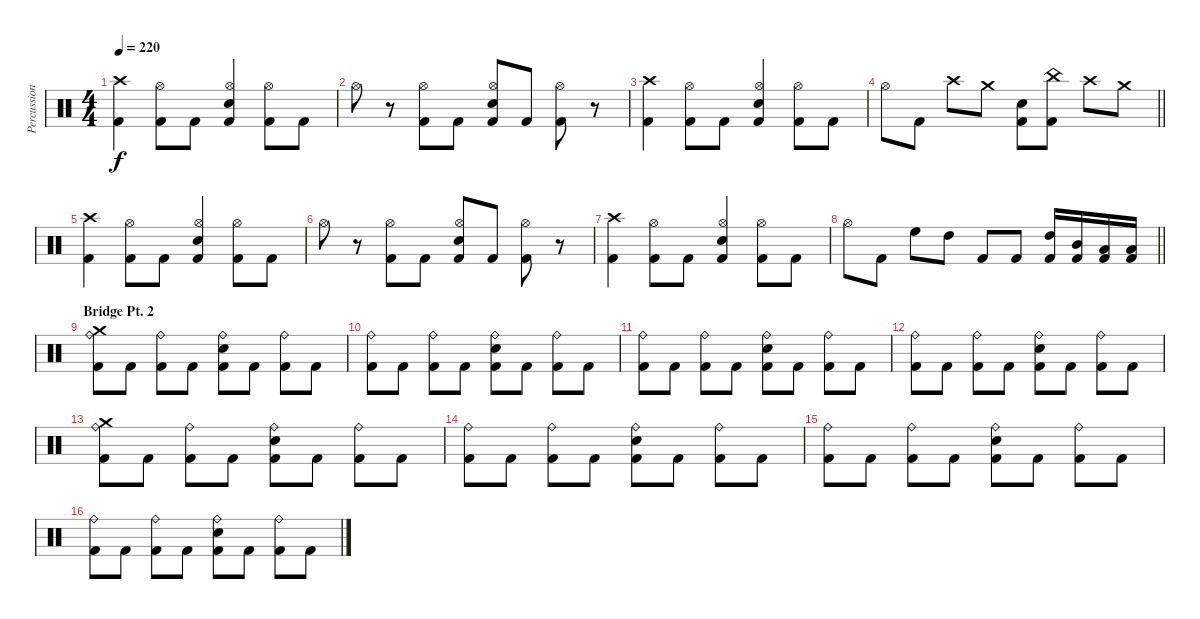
\track ("Percussion" "Percussion") {instrument percussion}
\staff {score}
\articulation defaults
\ts (4 4)
\tempo 220
\clef neutral
\ks c
("Crash high (hit)" "Kick (hit) 2").4{dy f} ("Hi-Hat (open)" "Kick (hit) 2").8 "Kick (hit) 2".8 ("Hi-Hat (open)" "Electric Snare (hit)" "Kick (hit) 2").4 ("Hi-Hat (open)" "Kick (hit) 2").8 "Kick (hit) 2".8 |
"Hi-Hat (open)".8 r.8 ("Hi-Hat (open)" "Kick (hit) 2").8 "Kick (hit) 2".8 ("Hi-Hat (open)" "Electric Snare (hit)" "Kick (hit) 2").8 "Kick (hit) 2".8 ("Hi-Hat (open)" "Kick (hit) 2").8 r.8 |
("Crash high (hit)" "Kick (hit) 2").4 ("Hi-Hat (open)" "Kick (hit) 2").8 "Kick (hit) 2".8 ("Hi-Hat (open)" "Electric Snare (hit)" "Kick (hit) 2").4 ("Hi-Hat (open)" "Kick (hit) 2").8 "Kick (hit) 2".8 |
\barLineRight lightlight "Hi-Hat (open)".8 "Kick (hit) 2".8 "Crash high (hit)".8 "Crash medium (hit)".8
("Electric Snare (hit)" "Kick (hit) 2").8 ("China (hit)" "Kick (hit) 2").8 "Crash high (hit)".8 "Crash medium (hit)".8 |
("Crash high (hit)" "Kick (hit) 2").4 ("Hi-Hat (open)" "Kick (hit) 2").8 "Kick (hit) 2".8 ("Hi-Hat (open)" "Electric Snare (hit)" "Kick (hit) 2").4 ("Hi-Hat (open)" "Kick (hit) 2").8 "Kick (hit) 2".8 |
"Hi-Hat (open)".8 r.8 ("Hi-Hat (open)" "Kick (hit) 2").8 "Kick (hit) 2".8 ("Hi-Hat (open)" "Electric Snare (hit)" "Kick (hit) 2").8 "Kick (hit) 2".8 ("Hi-Hat (open)" "Kick (hit) 2").8 r.8 |
("Crash high (hit)" "Kick (hit) 2").4 ("Hi-Hat (open)" "Kick (hit) 2").8 "Kick (hit) 2".8 ("Hi-Hat (open)" "Electric Snare (hit)" "Kick (hit) 2").4 ("Hi-Hat (open)" "Kick (hit) 2").8 "Kick (hit) 2".8 |
\barLineRight lightlight "Hi-Hat (open)".8 "Kick (hit) 2".8 "High Floor Tom (hit)".8 "High Tom (hit)".8 "Kick (hit) 2".8 "Kick (hit) 2".8
("High Tom (hit)" "Kick (hit) 2").16 ("Mid Tom (hit)" "Kick (hit) 2").16 ("Low Tom (hit)" "Kick (hit) 2").16 ("Low Floor Tom (hit)" "Kick (hit) 2").16 |
\section ("" "Bridge Pt. 2")
("Crash medium (hit)" "Ride (bell)" "Kick (hit) 2").8 "Kick (hit) 2".8 ("Ride (bell)" "Kick (hit) 2").8 "Kick (hit) 2".8 ("Ride (bell)" "Electric Snare (hit)" "Kick (hit) 2").8 "Kick (hit) 2".8 ("Ride (bell)" "Kick (hit) 2").8 "Kick (hit) 2".8 |
("Ride (bell)" "Kick (hit) 2").8 "Kick (hit) 2".8 ("Ride (bell)" "Kick (hit) 2").8 "Kick (hit) 2".8 ("Ride (bell)" "Electric Snare (hit)" "Kick (hit) 2").8 "Kick (hit) 2".8 ("Ride (bell)" "Kick (hit) 2").8 "Kick (hit) 2".8 |
("Ride (bell)" "Kick (hit) 2").8 "Kick (hit) 2".8 ("Ride (bell)" "Kick (hit) 2").8 "Kick (hit) 2".8 ("Ride (bell)" "Electric Snare (hit)" "Kick (hit) 2").8 "Kick (hit) 2".8 ("Ride (bell)" "Kick (hit) 2").8 "Kick (hit) 2".8 |
("Ride (bell)" "Kick (hit) 2").8 "Kick (hit) 2".8 ("Ride (bell)" "Kick (hit) 2").8 "Kick (hit) 2".8 ("Ride (bell)" "Electric Snare (hit)" "Kick (hit) 2").8 "Kick (hit) 2".8 ("Ride (bell)" "Kick (hit) 2").8 "Kick (hit) 2".8 |
("Crash medium (hit)" "Ride (bell)" "Kick (hit) 2").8 "Kick (hit) 2".8 ("Ride (bell)" "Kick (hit) 2").8 "Kick (hit) 2".8 ("Ride (bell)" "Electric Snare (hit)" "Kick (hit) 2").8 "Kick (hit) 2".8 ("Ride (bell)" "Kick (hit) 2").8 "Kick (hit) 2".8 |
("Ride (bell)" "Kick (hit) 2").8 "Kick (hit) 2".8 ("Ride (bell)" "Kick (hit) 2").8 "Kick (hit) 2".8 ("Ride (bell)" "Electric Snare (hit)" "Kick (hit) 2").8 "Kick (hit) 2".8 ("Ride (bell)" "Kick (hit) 2").8 "Kick (hit) 2".8 |
("Ride (bell)" "Kick (hit) 2").8 "Kick (hit) 2".8 ("Ride (bell)" "Kick (hit) 2").8 "Kick (hit) 2".8 ("Ride (bell)" "Electric Snare (hit)" "Kick (hit) 2").8 "Kick (hit) 2".8 ("Ride (bell)" "Kick (hit) 2").8 "Kick (hit) 2".8 |
("Ride (bell)" "Kick (hit) 2").8 "Kick (hit) 2".8 ("Ride (bell)" "Kick (hit) 2").8 "Kick (hit) 2".8 ("Ride (bell)" "Electric Snare (hit)" "Kick (hit) 2").8 "Kick (hit) 2".8 ("Ride (bell)" "Kick (hit) 2").8 "Kick (hit) 2".8
